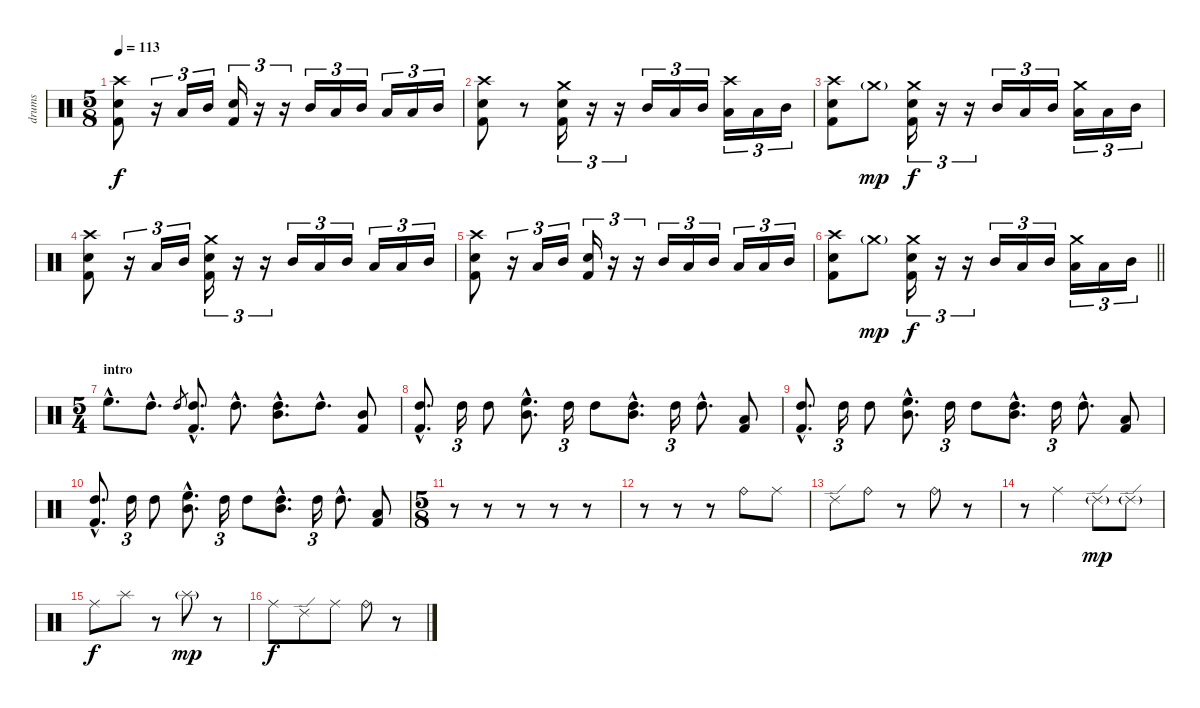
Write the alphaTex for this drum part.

\track ("drums" "drums") {instrument percussion}
\staff {score}
\articulation defaults
\ts (5 8)
\tempo 113
\clef neutral
\ks c
("Crash high (hit)" "Electric Snare (hit)" "Kick (hit) 2").8{dy f} r.16{tu (3 2)} "Low Tom (hit)".16{tu (3 2)} "Mid Tom (hit)".16{tu (3 2)} ("Electric Snare (hit)" "Kick (hit) 2").16{tu (3 2)} r.16{tu (3 2)} r.16{tu (3 2)} "Mid Tom (hit)".16{tu (3 2)} "Low Tom (hit)".16{tu (3 2)} "Mid Tom (hit)".16{tu (3 2)} "Low Tom (hit)".16{tu (3 2)} "Low Tom (hit)".16{tu (3 2)} "Mid Tom (hit)".16{tu (3 2)} |
("Crash high (hit)" "Electric Snare (hit)" "Kick (hit) 2").8 r.8 ("Crash medium (hit)" "Electric Snare (hit)" "Kick (hit) 2").16{tu (3 2)} r.16{tu (3 2)} r.16{tu (3 2)} "Mid Tom (hit)".16{tu (3 2)} "Low Tom (hit)".16{tu (3 2)} "Mid Tom (hit)".16{tu (3 2)} ("Crash high (hit)" "Low Tom (hit)").16{tu (3 2)} "Low Tom (hit)".16{tu (3 2)} "Mid Tom (hit)".16{tu (3 2)} |
("Crash high (hit)" "Electric Snare (hit)" "Kick (hit) 2").8 "Crash medium (hit)"{g}.8{dy mp} ("Crash medium (hit)" "Electric Snare (hit)" "Kick (hit) 2").16{tu (3 2) dy f} r.16{tu (3 2)} r.16{tu (3 2)} "Mid Tom (hit)".16{tu (3 2)} "Low Tom (hit)".16{tu (3 2)} "Mid Tom (hit)".16{tu (3 2)} ("Crash medium (hit)" "Low Tom (hit)").16{tu (3 2)} "Low Tom (hit)".16{tu (3 2)} "Mid Tom (hit)".16{tu (3 2)} |
("Crash high (hit)" "Electric Snare (hit)" "Kick (hit) 2").8 r.16{tu (3 2)} "Low Tom (hit)".16{tu (3 2)} "Mid Tom (hit)".16{tu (3 2)} ("Crash medium (hit)" "Electric Snare (hit)" "Kick (hit) 2").16{tu (3 2)} r.16{tu (3 2)} r.16{tu (3 2)} "Mid Tom (hit)".16{tu (3 2)} "Low Tom (hit)".16{tu (3 2)} "Mid Tom (hit)".16{tu (3 2)} "Low Tom (hit)".16{tu (3 2)} "Low Tom (hit)".16{tu (3 2)} "Mid Tom (hit)".16{tu (3 2)} |
("Crash high (hit)" "Electric Snare (hit)" "Kick (hit) 2").8 r.16{tu (3 2)} "Low Tom (hit)".16{tu (3 2)} "Mid Tom (hit)".16{tu (3 2)} ("Electric Snare (hit)" "Kick (hit) 2").16{tu (3 2)} r.16{tu (3 2)} r.16{tu (3 2)} "Mid Tom (hit)".16{tu (3 2)} "Low Tom (hit)".16{tu (3 2)} "Mid Tom (hit)".16{tu (3 2)} "Low Tom (hit)".16{tu (3 2)} "Low Tom (hit)".16{tu (3 2)} "Mid Tom (hit)".16{tu (3 2)} |
\barLineRight lightlight
("Crash high (hit)" "Electric Snare (hit)" "Kick (hit) 2").8 "Crash medium (hit)"{g}.8{dy mp} ("Crash medium (hit)" "Electric Snare (hit)" "Kick (hit) 2").16{tu (3 2) dy f} r.16{tu (3 2)} r.16{tu (3 2)} "Mid Tom (hit)".16{tu (3 2)} "Low Tom (hit)".16{tu (3 2)} "Mid Tom (hit)".16{tu (3 2)} ("Crash medium (hit)" "Low Tom (hit)").16{tu (3 2)} "Low Tom (hit)".16{tu (3 2)} "Mid Tom (hit)".16{tu (3 2)} |
\ts (5 4)
\section ("" "intro")
"High Floor Tom (hit)"{hac}.8{d} "High Tom (hit)"{hac}.8{d} "High Tom (hit)"{h}.8{gr} ("High Tom (hit)"{hac} "Kick (hit) 2"{hac}).8{d} "High Tom (hit)"{hac}.8{d} ("Mid Tom (hit)"{hac} "High Tom (hit)"{hac}).8{d} "High Tom (hit)"{hac}.8{d} ("Mid Tom (hit)" "Kick (hit) 2").8 |
("High Tom (hit)"{hac} "Kick (hit) 2"{hac}).8{d} "High Tom (hit)".16{tu (3 2)} "High Tom (hit)".8 ("Mid Tom (hit)"{hac} "High Floor Tom (hit)"{hac}).8{d} "High Tom (hit)".16{tu (3 2)} "High Tom (hit)".8 ("Mid Tom (hit)"{hac} "High Tom (hit)"{hac}).8{d} "High Tom (hit)".16{tu (3 2)} "High Tom (hit)"{hac}.8{d} ("Low Tom (hit)" "Kick (hit) 2").8 |
("High Tom (hit)"{hac} "Kick (hit) 2"{hac}).8{d} "High Tom (hit)".16{tu (3 2)} "High Tom (hit)".8 ("Mid Tom (hit)"{hac} "High Floor Tom (hit)"{hac}).8{d} "High Tom (hit)".16{tu (3 2)} "High Tom (hit)".8 ("Mid Tom (hit)"{hac} "High Tom (hit)"{hac}).8{d} "High Tom (hit)".16{tu (3 2)} "High Tom (hit)"{hac}.8{d} ("Low Tom (hit)" "Kick (hit) 2").8 |
("High Tom (hit)"{hac} "Kick (hit) 2"{hac}).8{d} "High Tom (hit)".16{tu (3 2)} "High Tom (hit)".8 ("Mid Tom (hit)"{hac} "High Floor Tom (hit)"{hac}).8{d} "High Tom (hit)".16{tu (3 2)} "High Tom (hit)".8 ("Mid Tom (hit)"{hac} "High Tom (hit)"{hac}).8{d} "High Tom (hit)".16{tu (3 2)} "High Tom (hit)"{hac}.8{d} ("Low Tom (hit)" "Kick (hit) 2").8 |
\ts (5 8)
r.8 r.8 r.8 r.8 r.8 |
r.8 r.8 r.8 "Ride (bell)".8 "Ride (middle)".8 |
"Ride (edge) 2".8 "Ride (bell)".8 r.8 "Ride (bell)".8 r.8 |
r.8 "Ride (middle)".4 "Ride (edge) 2"{g}.8{dy mp} "Ride (edge) 2"{g}.8 |
"Ride (middle)".8{dy f} "Splash (hit)".8 r.8 "Splash (hit)"{g}.8{dy mp} r.8 |
"Ride (middle)".8{dy f} "Ride (edge) 2".8 "Ride (middle)".8 "Ride (bell)".8 r.8
